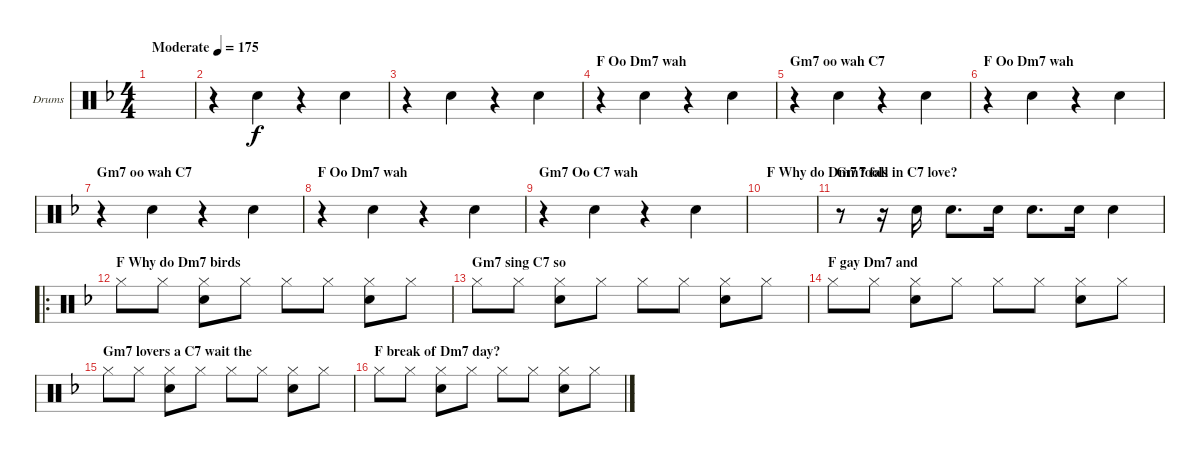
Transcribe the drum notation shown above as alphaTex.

\bracketExtendMode groupsimilarinstruments
\firstSystemTrackNameOrientation horizontal
\otherSystemsTrackNameOrientation horizontal
\track ("Drumkit" "Drums") {instrument percussion}
\staff {score}
\articulation defaults
\ts (4 4)
\beaming (8 2 2 2 2)
\ac
\tempo (175 "Moderate")
\clef neutral
\ks f
|
r.4 "Snare (hit) 2".4 r.4 "Snare (hit) 2".4 |
r.4 "Snare (hit) 2".4 r.4 "Snare (hit) 2".4 |
\section ("" "F Oo Dm7 wah")
r.4 "Snare (hit) 2".4 r.4 "Snare (hit) 2".4 |
\section ("" "Gm7 oo wah C7")
r.4 "Snare (hit) 2".4 r.4 "Snare (hit) 2".4 |
\section ("" "F Oo Dm7 wah")
r.4 "Snare (hit) 2".4 r.4 "Snare (hit) 2".4 |
\section ("" "Gm7 oo wah C7")
r.4 "Snare (hit) 2".4 r.4 "Snare (hit) 2".4 |
\section ("" "F Oo Dm7 wah")
r.4 "Snare (hit) 2".4 r.4 "Snare (hit) 2".4 |
\section ("" "Gm7 Oo C7 wah")
r.4 "Snare (hit) 2".4 r.4 "Snare (hit) 2".4 |
\section ("" "F Why do Dm7 fools")
|
\section ("" "Gm7 fall in C7 love?")
r.8 r.16 "Snare (hit) 2".16 "Snare (hit) 2".8{d} "Snare (hit) 2".16 "Snare (hit) 2".8{d} "Snare (hit) 2".16 "Snare (hit) 2".4 |
\ro
\section ("" "F Why do Dm7 birds")
"Hi-Hat (closed)".8 "Hi-Hat (closed)".8 ("Snare (hit) 2" "Hi-Hat (closed)").8 "Hi-Hat (closed)".8 "Hi-Hat (closed)".8 "Hi-Hat (closed)".8 ("Snare (hit) 2" "Hi-Hat (closed)").8 "Hi-Hat (closed)".8 |
\section ("" "Gm7 sing C7 so")
"Hi-Hat (closed)".8 "Hi-Hat (closed)".8 ("Snare (hit) 2" "Hi-Hat (closed)").8 "Hi-Hat (closed)".8 "Hi-Hat (closed)".8 "Hi-Hat (closed)".8 ("Snare (hit) 2" "Hi-Hat (closed)").8 "Hi-Hat (closed)".8 |
\section ("" "F gay Dm7 and ")
"Hi-Hat (closed)".8 "Hi-Hat (closed)".8 ("Snare (hit) 2" "Hi-Hat (closed)").8 "Hi-Hat (closed)".8 "Hi-Hat (closed)".8 "Hi-Hat (closed)".8 ("Snare (hit) 2" "Hi-Hat (closed)").8 "Hi-Hat (closed)".8 |
\section ("" "Gm7 lovers a C7 wait the ")
"Hi-Hat (closed)".8 "Hi-Hat (closed)".8 ("Snare (hit) 2" "Hi-Hat (closed)").8 "Hi-Hat (closed)".8 "Hi-Hat (closed)".8 "Hi-Hat (closed)".8 ("Snare (hit) 2" "Hi-Hat (closed)").8 "Hi-Hat (closed)".8 |
\section ("" "F break of Dm7 day?")
"Hi-Hat (closed)".8 "Hi-Hat (closed)".8 ("Snare (hit) 2" "Hi-Hat (closed)").8 "Hi-Hat (closed)".8 "Hi-Hat (closed)".8 "Hi-Hat (closed)".8 ("Snare (hit) 2" "Hi-Hat (closed)").8 "Hi-Hat (closed)".8
